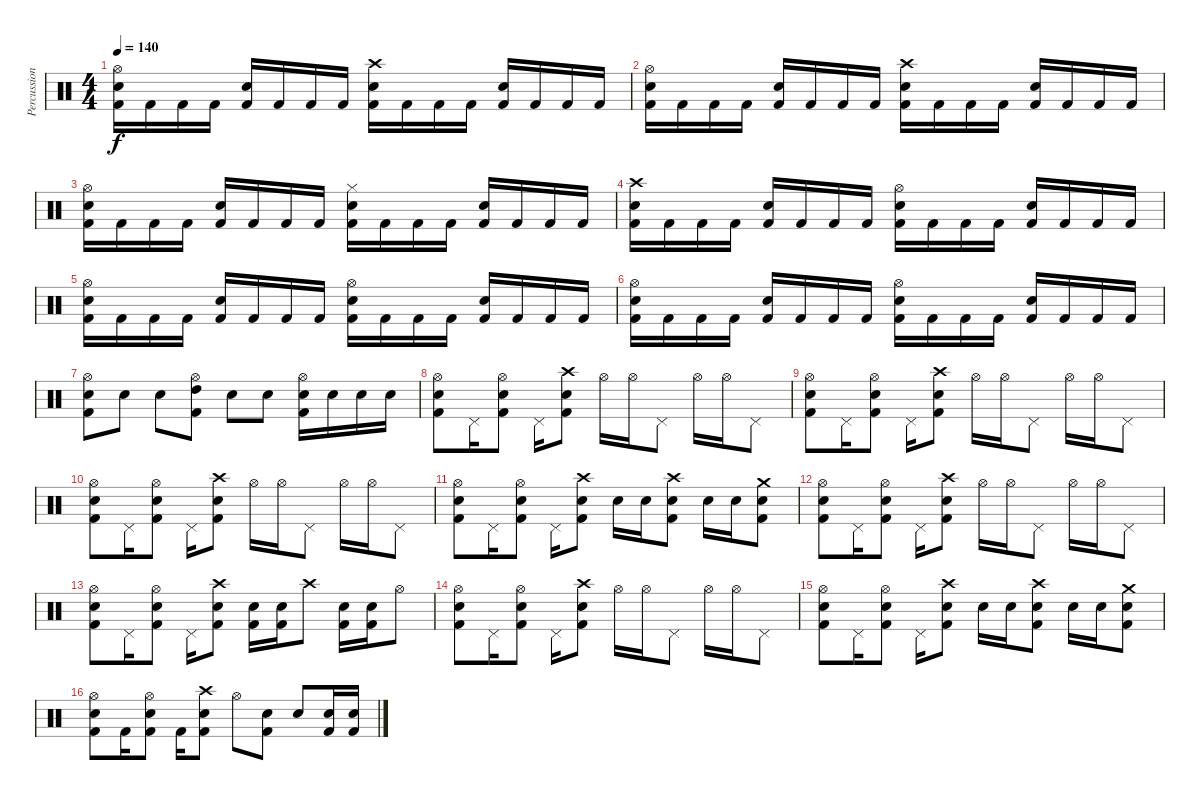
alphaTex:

\track ("Percussions" "Percussion") {instrument percussion}
\staff {score}
\articulation defaults
\ts (4 4)
\tempo 140
\clef neutral
\ks c
("Hi-Hat (open)" "Snare (hit) 2" "Kick (hit) 2").16{dy f} "Kick (hit) 2".16 "Kick (hit) 2".16 "Kick (hit) 2".16 ("Snare (hit) 2" "Kick (hit) 2").16 "Kick (hit) 2".16 "Kick (hit) 2".16 "Kick (hit) 2".16 ("Crash high (hit)" "Snare (hit) 2" "Kick (hit) 2").16 "Kick (hit) 2".16 "Kick (hit) 2".16 "Kick (hit) 2".16 ("Snare (hit) 2" "Kick (hit) 2").16 "Kick (hit) 2".16 "Kick (hit) 2".16 "Kick (hit) 2".16 |
("Hi-Hat (open)" "Snare (hit) 2" "Kick (hit) 2").16 "Kick (hit) 2".16 "Kick (hit) 2".16 "Kick (hit) 2".16 ("Snare (hit) 2" "Kick (hit) 2").16 "Kick (hit) 2".16 "Kick (hit) 2".16 "Kick (hit) 2".16 ("Crash high (hit)" "Snare (hit) 2" "Kick (hit) 2").16 "Kick (hit) 2".16 "Kick (hit) 2".16 "Kick (hit) 2".16 ("Snare (hit) 2" "Kick (hit) 2").16 "Kick (hit) 2".16 "Kick (hit) 2".16 "Kick (hit) 2".16 |
("Hi-Hat (open)" "Snare (hit) 2" "Kick (hit) 2").16 "Kick (hit) 2".16 "Kick (hit) 2".16 "Kick (hit) 2".16 ("Snare (hit) 2" "Kick (hit) 2").16 "Kick (hit) 2".16 "Kick (hit) 2".16 "Kick (hit) 2".16 ("Hi-Hat (closed)" "Snare (hit) 2" "Kick (hit) 2").16 "Kick (hit) 2".16 "Kick (hit) 2".16 "Kick (hit) 2".16 ("Snare (hit) 2" "Kick (hit) 2").16 "Kick (hit) 2".16 "Kick (hit) 2".16 "Kick (hit) 2".16 |
("Crash high (hit)" "Snare (hit) 2" "Kick (hit) 2").16 "Kick (hit) 2".16 "Kick (hit) 2".16 "Kick (hit) 2".16 ("Snare (hit) 2" "Kick (hit) 2").16 "Kick (hit) 2".16 "Kick (hit) 2".16 "Kick (hit) 2".16 ("Hi-Hat (open)" "Snare (hit) 2" "Kick (hit) 2").16 "Kick (hit) 2".16 "Kick (hit) 2".16 "Kick (hit) 2".16 ("Snare (hit) 2" "Kick (hit) 2").16 "Kick (hit) 2".16 "Kick (hit) 2".16 "Kick (hit) 2".16 |
("Hi-Hat (open)" "Snare (hit) 2" "Kick (hit) 2").16 "Kick (hit) 2".16 "Kick (hit) 2".16 "Kick (hit) 2".16 ("Snare (hit) 2" "Kick (hit) 2").16 "Kick (hit) 2".16 "Kick (hit) 2".16 "Kick (hit) 2".16 ("Hi-Hat (open)" "Snare (hit) 2" "Kick (hit) 2").16 "Kick (hit) 2".16 "Kick (hit) 2".16 "Kick (hit) 2".16 ("Snare (hit) 2" "Kick (hit) 2").16 "Kick (hit) 2".16 "Kick (hit) 2".16 "Kick (hit) 2".16 |
("Hi-Hat (open)" "Snare (hit) 2" "Kick (hit) 2").16 "Kick (hit) 2".16 "Kick (hit) 2".16 "Kick (hit) 2".16 ("Snare (hit) 2" "Kick (hit) 2").16 "Kick (hit) 2".16 "Kick (hit) 2".16 "Kick (hit) 2".16 ("Hi-Hat (open)" "Snare (hit) 2" "Kick (hit) 2").16 "Kick (hit) 2".16 "Kick (hit) 2".16 "Kick (hit) 2".16 ("Snare (hit) 2" "Kick (hit) 2").16 "Kick (hit) 2".16 "Kick (hit) 2".16 "Kick (hit) 2".16 |
("Hi-Hat (open)" "Snare (hit) 2" "Kick (hit) 2").8 "Snare (hit) 2".8 "Snare (hit) 2".8 ("Hi-Hat (open)" "High Tom (hit)" "Kick (hit) 2").8 "Snare (hit) 2".8 "Snare (hit) 2".8 ("Hi-Hat (open)" "Snare (hit) 2" "Kick (hit) 2").16 "Snare (hit) 2".16 "Snare (hit) 2".16 "Snare (hit) 2".16 |
("Hi-Hat (open)" "Snare (hit) 2" "Kick (hit) 2").8 "Pedal Hi-Hat (hit)".16 ("Hi-Hat (open)" "Snare (hit) 2" "Kick (hit) 2").8 "Pedal Hi-Hat (hit)".16 ("Crash high (hit)" "Snare (hit) 2" "Kick (hit) 2").8 "Hi-Hat (open)".16 "Hi-Hat (open)".16 "Pedal Hi-Hat (hit)".8 "Hi-Hat (open)".16 "Hi-Hat (open)".16 "Pedal Hi-Hat (hit)".8 |
("Hi-Hat (open)" "Snare (hit) 2" "Kick (hit) 2").8 "Pedal Hi-Hat (hit)".16 ("Hi-Hat (open)" "Snare (hit) 2" "Kick (hit) 2").8 "Pedal Hi-Hat (hit)".16 ("Crash high (hit)" "Snare (hit) 2" "Kick (hit) 2").8 "Hi-Hat (open)".16 "Hi-Hat (open)".16 "Pedal Hi-Hat (hit)".8 "Hi-Hat (open)".16 "Hi-Hat (open)".16 "Pedal Hi-Hat (hit)".8 |
("Hi-Hat (open)" "Snare (hit) 2" "Kick (hit) 2").8 "Pedal Hi-Hat (hit)".16 ("Hi-Hat (open)" "Snare (hit) 2" "Kick (hit) 2").8 "Pedal Hi-Hat (hit)".16 ("Crash high (hit)" "Snare (hit) 2" "Kick (hit) 2").8 "Hi-Hat (open)".16 "Hi-Hat (open)".16 "Pedal Hi-Hat (hit)".8 "Hi-Hat (open)".16 "Hi-Hat (open)".16 "Pedal Hi-Hat (hit)".8 |
("Hi-Hat (open)" "Snare (hit) 2" "Kick (hit) 2").8 "Pedal Hi-Hat (hit)".16 ("Hi-Hat (open)" "Snare (hit) 2" "Kick (hit) 2").8 "Pedal Hi-Hat (hit)".16 ("Crash high (hit)" "Snare (hit) 2" "Kick (hit) 2").8 "Snare (hit) 2".16 "Snare (hit) 2".16 ("Crash high (hit)" "Snare (hit) 2" "Kick (hit) 2").8 "Snare (hit) 2".16 "Snare (hit) 2".16 ("Crash medium (hit)" "Snare (hit) 2" "Kick (hit) 2").8 |
("Hi-Hat (open)" "Snare (hit) 2" "Kick (hit) 2").8 "Pedal Hi-Hat (hit)".16 ("Hi-Hat (open)" "Snare (hit) 2" "Kick (hit) 2").8 "Pedal Hi-Hat (hit)".16 ("Crash high (hit)" "Snare (hit) 2" "Kick (hit) 2").8 "Hi-Hat (open)".16 "Hi-Hat (open)".16 "Pedal Hi-Hat (hit)".8 "Hi-Hat (open)".16 "Hi-Hat (open)".16 "Pedal Hi-Hat (hit)".8 |
("Hi-Hat (open)" "Snare (hit) 2" "Kick (hit) 2").8 "Pedal Hi-Hat (hit)".16 ("Hi-Hat (open)" "Snare (hit) 2" "Kick (hit) 2").8 "Pedal Hi-Hat (hit)".16 ("Crash high (hit)" "Snare (hit) 2" "Kick (hit) 2").8 ("Snare (hit) 2" "Kick (hit) 2").16 ("Snare (hit) 2" "Kick (hit) 2").16 "Crash high (hit)".8 ("Snare (hit) 2" "Kick (hit) 2").16 ("Snare (hit) 2" "Kick (hit) 2").16 "Hi-Hat (open)".8 |
("Hi-Hat (open)" "Snare (hit) 2" "Kick (hit) 2").8 "Pedal Hi-Hat (hit)".16 ("Hi-Hat (open)" "Snare (hit) 2" "Kick (hit) 2").8 "Pedal Hi-Hat (hit)".16 ("Crash high (hit)" "Snare (hit) 2" "Kick (hit) 2").8 "Hi-Hat (open)".16 "Hi-Hat (open)".16 "Pedal Hi-Hat (hit)".8 "Hi-Hat (open)".16 "Hi-Hat (open)".16 "Pedal Hi-Hat (hit)".8 |
("Hi-Hat (open)" "Snare (hit) 2" "Kick (hit) 2").8 "Pedal Hi-Hat (hit)".16 ("Hi-Hat (open)" "Snare (hit) 2" "Kick (hit) 2").8 "Pedal Hi-Hat (hit)".16 ("Crash high (hit)" "Snare (hit) 2" "Kick (hit) 2").8 "Snare (hit) 2".16 "Snare (hit) 2".16 ("Crash high (hit)" "Snare (hit) 2" "Kick (hit) 2").8 "Snare (hit) 2".16 "Snare (hit) 2".16 ("Crash medium (hit)" "Snare (hit) 2" "Kick (hit) 2").8 |
("Hi-Hat (open)" "Snare (hit) 2" "Kick (hit) 2").8 "Kick (hit) 2".16 ("Hi-Hat (open)" "Snare (hit) 2" "Kick (hit) 2").8 "Kick (hit) 2".16 ("Crash high (hit)" "Snare (hit) 2" "Kick (hit) 2").8 "Hi-Hat (open)".8 ("Snare (hit) 2" "Kick (hit) 2").8 "Snare (hit) 2".8 ("Snare (hit) 2" "Kick (hit) 2").16 ("Snare (hit) 2" "Kick (hit) 2").16
